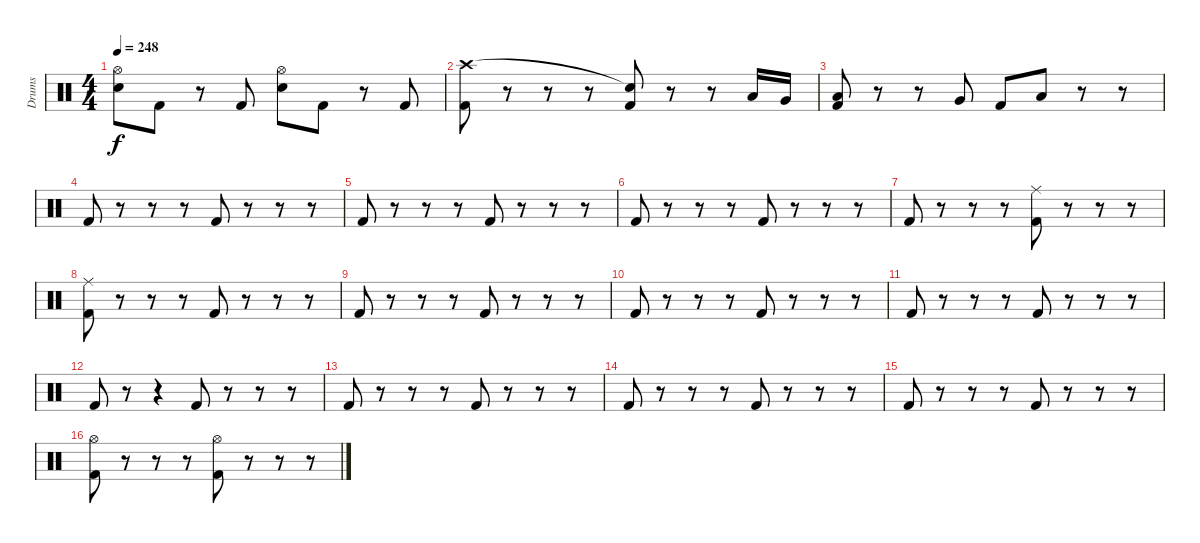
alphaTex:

\track ("Drums" "Drums") {instrument percussion}
\staff {score}
\articulation defaults
\ts (4 4)
\tempo 248
\clef neutral
\ks c
("Electric Snare (hit)" "Hi-Hat (open)").8{dy f} "Kick (hit) 2".8 r.8 "Kick (hit) 2".8 ("Electric Snare (hit)" "Hi-Hat (open)").8 "Kick (hit) 2".8 r.8 "Kick (hit) 2".8 |
("Crash high (hit)" "Kick (hit) 2").8 r.8 r.8 r.8 ("Snare (hit)"{t} "Kick (hit) 2").8 r.8 r.8 "Low Floor Tom (hit)".16 "Very Low Tom (hit)".16 |
("Low Floor Tom (hit)" "Kick (hit) 2").8 r.8 r.8 "Very Low Tom (hit)".8 "Kick (hit) 2".8 "Low Floor Tom (hit)".8 r.8 r.8 |
"Kick (hit) 2".8 r.8 r.8 r.8 "Kick (hit) 2".8 r.8 r.8 r.8 |
"Kick (hit) 2".8 r.8 r.8 r.8 "Kick (hit) 2".8 r.8 r.8 r.8 |
"Kick (hit) 2".8 r.8 r.8 r.8 "Kick (hit) 2".8 r.8 r.8 r.8 |
"Kick (hit) 2".8 r.8 r.8 r.8 ("Ride (middle)" "Kick (hit) 2").8 r.8 r.8 r.8 |
("Ride (middle)" "Kick (hit) 2").8 r.8 r.8 r.8 "Kick (hit) 2".8 r.8 r.8 r.8 |
"Kick (hit) 2".8 r.8 r.8 r.8 "Kick (hit) 2".8 r.8 r.8 r.8 |
"Kick (hit) 2".8 r.8 r.8 r.8 "Kick (hit) 2".8 r.8 r.8 r.8 |
"Kick (hit) 2".8 r.8 r.8 r.8 "Kick (hit) 2".8 r.8 r.8 r.8 |
"Kick (hit) 2".8 r.8 r.4 "Kick (hit) 2".8 r.8 r.8 r.8 |
"Kick (hit) 2".8 r.8 r.8 r.8 "Kick (hit) 2".8 r.8 r.8 r.8 |
"Kick (hit) 2".8 r.8 r.8 r.8 "Kick (hit) 2".8 r.8 r.8 r.8 |
"Kick (hit) 2".8 r.8 r.8 r.8 "Kick (hit) 2".8 r.8 r.8 r.8 |
("Hi-Hat (open)" "Kick (hit) 2").8 r.8 r.8 r.8 ("Hi-Hat (open)" "Kick (hit) 2").8 r.8 r.8 r.8
